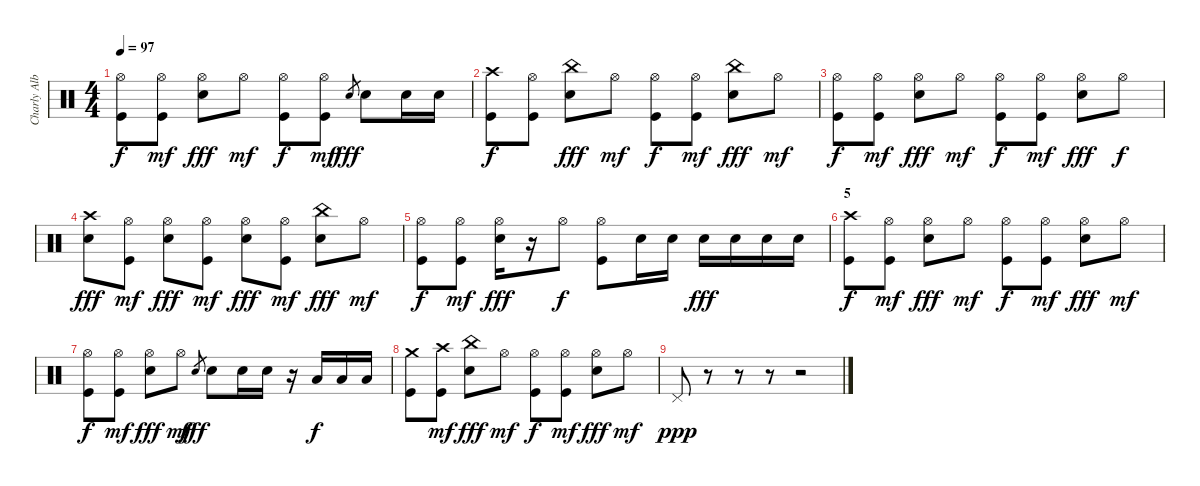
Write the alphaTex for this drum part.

\track ("Charly Alberti" "Charly Alb") {instrument percussion}
\staff {score}
\articulation defaults
\ts (4 4)
\tempo 97
\clef neutral
\ks c
("Kick (hit)" "Hi-Hat (open)").8{dy f} ("Kick (hit)" "Hi-Hat (open)").8{dy mf} ("Snare (hit) 2" "Hi-Hat (open)").8{dy fff} "Hi-Hat (open)".8{dy mf} ("Kick (hit)" "Hi-Hat (open)").8{dy f} ("Kick (hit)" "Hi-Hat (open)").8{dy mf} "Snare (hit) 2".8{gr dy fff} "Snare (hit) 2".8 "Snare (hit) 2".16 "Snare (hit) 2".16 |
("Kick (hit)" "Crash high (hit)").8{dy f} ("Kick (hit)" "Hi-Hat (open)").8 ("Snare (hit) 2" "China (hit)").8{dy fff} "Hi-Hat (open)".8{dy mf} ("Kick (hit)" "Hi-Hat (open)").8{dy f} ("Kick (hit)" "Hi-Hat (open)").8{dy mf} ("Snare (hit) 2" "China (hit)").8{dy fff} "Hi-Hat (open)".8{dy mf} |
("Kick (hit)" "Hi-Hat (open)").8{dy f} ("Kick (hit)" "Hi-Hat (open)").8{dy mf} ("Snare (hit) 2" "Hi-Hat (open)").8{dy fff} "Hi-Hat (open)".8{dy mf} ("Kick (hit)" "Hi-Hat (open)").8{dy f} ("Kick (hit)" "Hi-Hat (open)").8{dy mf} ("Snare (hit) 2" "Hi-Hat (open)").8{dy fff} "Hi-Hat (open)".8{dy f} |
("Snare (hit) 2" "Crash high (hit)").8{dy fff} ("Kick (hit)" "Hi-Hat (open)").8{dy mf} ("Snare (hit) 2" "Hi-Hat (open)").8{dy fff} ("Kick (hit)" "Hi-Hat (open)").8{dy mf} ("Snare (hit) 2" "Hi-Hat (open)").8{dy fff} ("Kick (hit)" "Hi-Hat (open)").8{dy mf} ("Snare (hit) 2" "China (hit)").8{dy fff} "Hi-Hat (open)".8{dy mf} |
("Kick (hit)" "Hi-Hat (open)").8{dy f} ("Kick (hit)" "Hi-Hat (open)").8{dy mf} ("Snare (hit) 2" "Hi-Hat (open)").16{dy fff} r.16 "Hi-Hat (open)".8{dy f} ("Kick (hit)" "Hi-Hat (open)").8 "Snare (hit) 2".16 "Snare (hit) 2".16 "Snare (hit) 2".16{dy fff} "Snare (hit) 2".16 "Snare (hit) 2".16 "Snare (hit) 2".16 |
\section ("" "5")
("Kick (hit)" "Crash high (hit)").8{dy f} ("Kick (hit)" "Hi-Hat (open)").8{dy mf} ("Snare (hit) 2" "Hi-Hat (open)").8{dy fff} "Hi-Hat (open)".8{dy mf} ("Kick (hit)" "Hi-Hat (open)").8{dy f} ("Kick (hit)" "Hi-Hat (open)").8{dy mf} ("Snare (hit) 2" "Hi-Hat (open)").8{dy fff} "Hi-Hat (open)".8{dy mf} |
("Kick (hit)" "Hi-Hat (open)").8{dy f} ("Kick (hit)" "Hi-Hat (open)").8{dy mf} ("Snare (hit) 2" "Hi-Hat (open)").8{dy fff} "Hi-Hat (open)".8{dy mf} "Snare (hit) 2".8{gr dy fff} "Snare (hit) 2".8 "Snare (hit) 2".16 "Snare (hit) 2".16 r.16 "Low Tom (hit)".16{dy f} "Low Floor Tom (hit)".16 "Low Floor Tom (hit)".16 |
("Kick (hit)" "Crash medium (hit)").8 ("Kick (hit)" "Crash high (hit)").8{dy mf} ("Snare (hit) 2" "China (hit)").8{dy fff} "Hi-Hat (open)".8{dy mf} ("Kick (hit)" "Hi-Hat (open)").8{dy f} ("Kick (hit)" "Hi-Hat (open)").8{dy mf} ("Snare (hit) 2" "Hi-Hat (open)").8{dy fff} "Hi-Hat (open)".8{dy mf} |
"Pedal Hi-Hat (hit)".8{dy ppp} r.8 r.8 r.8 r.2
